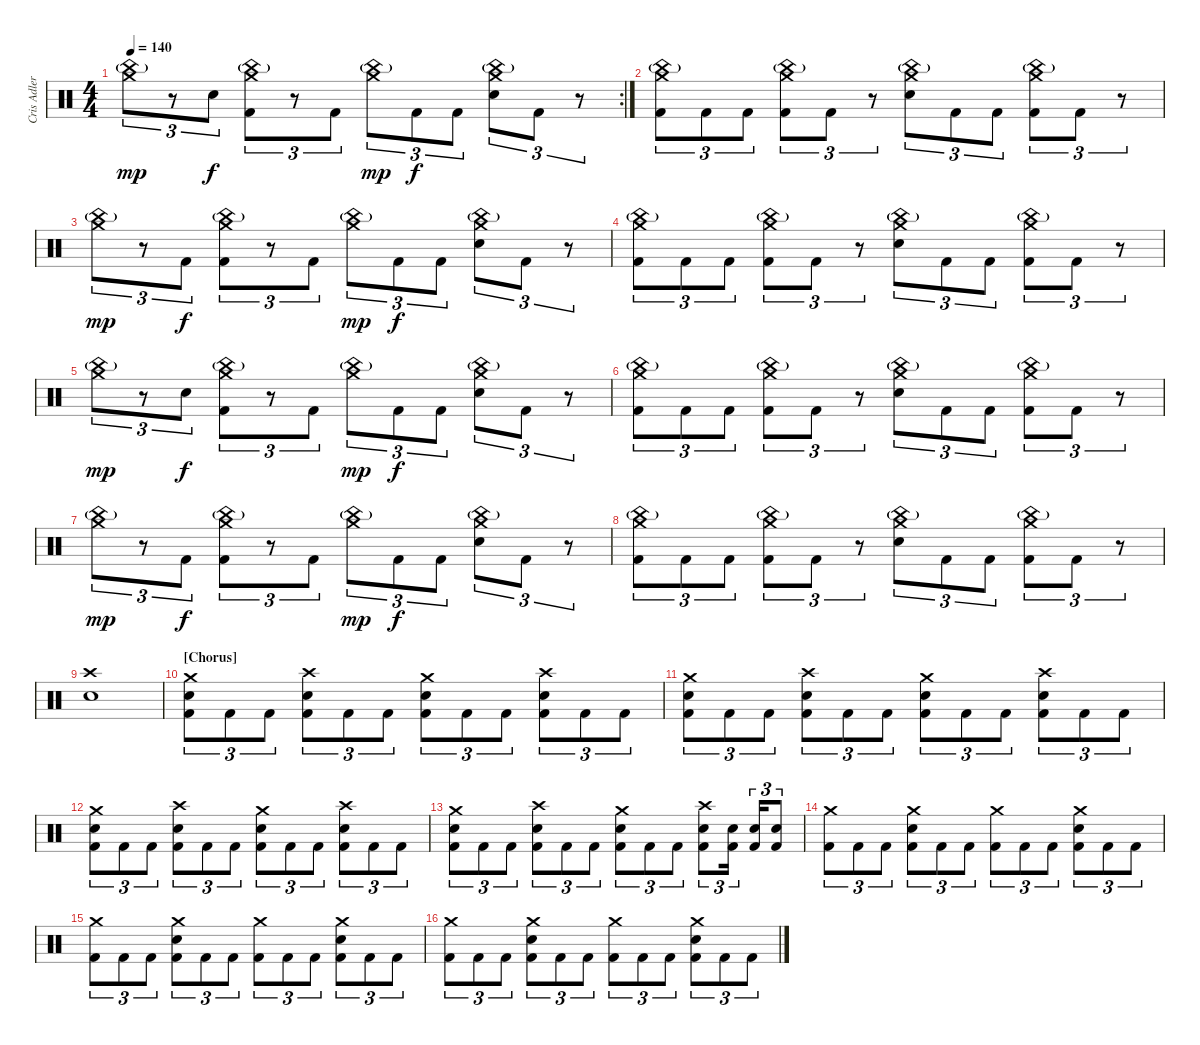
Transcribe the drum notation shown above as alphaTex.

\track ("Cris Adler" "Cris Adler") {instrument percussion}
\staff {score}
\articulation defaults
\rc 2
\ts (4 4)
\tempo 140
\clef neutral
\ks c
("Crash medium (hit)" "China (hit)"{g}).8{tu (3 2) dy mp} r.8{tu (3 2)} "Electric Snare (hit)".8{tu (3 2) dy f} ("Crash medium (hit)" "China (hit)"{g} "Kick (hit) 2").8{tu (3 2)} r.8{tu (3 2)} "Kick (hit) 2".8{tu (3 2)} ("Crash medium (hit)" "China (hit)"{g}).8{tu (3 2) dy mp} "Kick (hit) 2".8{tu (3 2) dy f} "Kick (hit) 2".8{tu (3 2)} ("Crash medium (hit)" "China (hit)"{g} "Electric Snare (hit)").8{tu (3 2)} "Kick (hit) 2".8{tu (3 2)} r.8{tu (3 2)} |
("China (hit)"{g} "Crash medium (hit)" "Kick (hit) 2").8{tu (3 2)} "Kick (hit) 2".8{tu (3 2)} "Kick (hit) 2".8{tu (3 2)} ("China (hit)"{g} "Crash medium (hit)" "Kick (hit) 2").8{tu (3 2)} "Kick (hit) 2".8{tu (3 2)} r.8{tu (3 2)} ("China (hit)"{g} "Crash medium (hit)" "Electric Snare (hit)").8{tu (3 2)} "Kick (hit) 2".8{tu (3 2)} "Kick (hit) 2".8{tu (3 2)} ("China (hit)"{g} "Crash medium (hit)" "Kick (hit) 2").8{tu (3 2)} "Kick (hit) 2".8{tu (3 2)} r.8{tu (3 2)} |
("Crash medium (hit)" "China (hit)"{g}).8{tu (3 2) dy mp} r.8{tu (3 2)} "Kick (hit) 2".8{tu (3 2) dy f} ("Crash medium (hit)" "China (hit)"{g} "Kick (hit) 2").8{tu (3 2)} r.8{tu (3 2)} "Kick (hit) 2".8{tu (3 2)} ("Crash medium (hit)" "China (hit)"{g}).8{tu (3 2) dy mp} "Kick (hit) 2".8{tu (3 2) dy f} "Kick (hit) 2".8{tu (3 2)} ("Crash medium (hit)" "China (hit)"{g} "Electric Snare (hit)").8{tu (3 2)} "Kick (hit) 2".8{tu (3 2)} r.8{tu (3 2)} |
("China (hit)"{g} "Crash medium (hit)" "Kick (hit) 2").8{tu (3 2)} "Kick (hit) 2".8{tu (3 2)} "Kick (hit) 2".8{tu (3 2)} ("China (hit)"{g} "Crash medium (hit)" "Kick (hit) 2").8{tu (3 2)} "Kick (hit) 2".8{tu (3 2)} r.8{tu (3 2)} ("China (hit)"{g} "Crash medium (hit)" "Electric Snare (hit)").8{tu (3 2)} "Kick (hit) 2".8{tu (3 2)} "Kick (hit) 2".8{tu (3 2)} ("China (hit)"{g} "Crash medium (hit)" "Kick (hit) 2").8{tu (3 2)} "Kick (hit) 2".8{tu (3 2)} r.8{tu (3 2)} |
("Crash medium (hit)" "China (hit)"{g}).8{tu (3 2) dy mp} r.8{tu (3 2)} "Electric Snare (hit)".8{tu (3 2) dy f} ("Crash medium (hit)" "China (hit)"{g} "Kick (hit) 2").8{tu (3 2)} r.8{tu (3 2)} "Kick (hit) 2".8{tu (3 2)} ("Crash medium (hit)" "China (hit)"{g}).8{tu (3 2) dy mp} "Kick (hit) 2".8{tu (3 2) dy f} "Kick (hit) 2".8{tu (3 2)} ("Crash medium (hit)" "China (hit)"{g} "Electric Snare (hit)").8{tu (3 2)} "Kick (hit) 2".8{tu (3 2)} r.8{tu (3 2)} |
("China (hit)"{g} "Crash medium (hit)" "Kick (hit) 2").8{tu (3 2)} "Kick (hit) 2".8{tu (3 2)} "Kick (hit) 2".8{tu (3 2)} ("China (hit)"{g} "Crash medium (hit)" "Kick (hit) 2").8{tu (3 2)} "Kick (hit) 2".8{tu (3 2)} r.8{tu (3 2)} ("China (hit)"{g} "Crash medium (hit)" "Electric Snare (hit)").8{tu (3 2)} "Kick (hit) 2".8{tu (3 2)} "Kick (hit) 2".8{tu (3 2)} ("China (hit)"{g} "Crash medium (hit)" "Kick (hit) 2").8{tu (3 2)} "Kick (hit) 2".8{tu (3 2)} r.8{tu (3 2)} |
("Crash medium (hit)" "China (hit)"{g}).8{tu (3 2) dy mp} r.8{tu (3 2)} "Kick (hit) 2".8{tu (3 2) dy f} ("Crash medium (hit)" "China (hit)"{g} "Kick (hit) 2").8{tu (3 2)} r.8{tu (3 2)} "Kick (hit) 2".8{tu (3 2)} ("Crash medium (hit)" "China (hit)"{g}).8{tu (3 2) dy mp} "Kick (hit) 2".8{tu (3 2) dy f} "Kick (hit) 2".8{tu (3 2)} ("Crash medium (hit)" "China (hit)"{g} "Electric Snare (hit)").8{tu (3 2)} "Kick (hit) 2".8{tu (3 2)} r.8{tu (3 2)} |
("China (hit)"{g} "Crash medium (hit)" "Kick (hit) 2").8{tu (3 2)} "Kick (hit) 2".8{tu (3 2)} "Kick (hit) 2".8{tu (3 2)} ("China (hit)"{g} "Crash medium (hit)" "Kick (hit) 2").8{tu (3 2)} "Kick (hit) 2".8{tu (3 2)} r.8{tu (3 2)} ("China (hit)"{g} "Crash medium (hit)" "Electric Snare (hit)").8{tu (3 2)} "Kick (hit) 2".8{tu (3 2)} "Kick (hit) 2".8{tu (3 2)} ("China (hit)"{g} "Crash medium (hit)" "Kick (hit) 2").8{tu (3 2)} "Kick (hit) 2".8{tu (3 2)} r.8{tu (3 2)} |
("Crash high (hit)" "Electric Snare (hit)").1 |
\section ("" "[Chorus]")
("Crash medium (hit)" "Electric Snare (hit)" "Kick (hit) 2").8{tu (3 2)} "Kick (hit) 2".8{tu (3 2)} "Kick (hit) 2".8{tu (3 2)} ("Crash high (hit)" "Electric Snare (hit)" "Kick (hit) 2").8{tu (3 2)} "Kick (hit) 2".8{tu (3 2)} "Kick (hit) 2".8{tu (3 2)} ("Crash medium (hit)" "Electric Snare (hit)" "Kick (hit) 2").8{tu (3 2)} "Kick (hit) 2".8{tu (3 2)} "Kick (hit) 2".8{tu (3 2)} ("Crash high (hit)" "Electric Snare (hit)" "Kick (hit) 2").8{tu (3 2)} "Kick (hit) 2".8{tu (3 2)} "Kick (hit) 2".8{tu (3 2)} |
("Crash medium (hit)" "Electric Snare (hit)" "Kick (hit) 2").8{tu (3 2)} "Kick (hit) 2".8{tu (3 2)} "Kick (hit) 2".8{tu (3 2)} ("Crash high (hit)" "Electric Snare (hit)" "Kick (hit) 2").8{tu (3 2)} "Kick (hit) 2".8{tu (3 2)} "Kick (hit) 2".8{tu (3 2)} ("Crash medium (hit)" "Electric Snare (hit)" "Kick (hit) 2").8{tu (3 2)} "Kick (hit) 2".8{tu (3 2)} "Kick (hit) 2".8{tu (3 2)} ("Crash high (hit)" "Electric Snare (hit)" "Kick (hit) 2").8{tu (3 2)} "Kick (hit) 2".8{tu (3 2)} "Kick (hit) 2".8{tu (3 2)} |
("Crash medium (hit)" "Electric Snare (hit)" "Kick (hit) 2").8{tu (3 2)} "Kick (hit) 2".8{tu (3 2)} "Kick (hit) 2".8{tu (3 2)} ("Crash high (hit)" "Electric Snare (hit)" "Kick (hit) 2").8{tu (3 2)} "Kick (hit) 2".8{tu (3 2)} "Kick (hit) 2".8{tu (3 2)} ("Crash medium (hit)" "Electric Snare (hit)" "Kick (hit) 2").8{tu (3 2)} "Kick (hit) 2".8{tu (3 2)} "Kick (hit) 2".8{tu (3 2)} ("Crash high (hit)" "Electric Snare (hit)" "Kick (hit) 2").8{tu (3 2)} "Kick (hit) 2".8{tu (3 2)} "Kick (hit) 2".8{tu (3 2)} |
("Crash medium (hit)" "Electric Snare (hit)" "Kick (hit) 2").8{tu (3 2)} "Kick (hit) 2".8{tu (3 2)} "Kick (hit) 2".8{tu (3 2)} ("Crash high (hit)" "Electric Snare (hit)" "Kick (hit) 2").8{tu (3 2)} "Kick (hit) 2".8{tu (3 2)} "Kick (hit) 2".8{tu (3 2)} ("Crash medium (hit)" "Electric Snare (hit)" "Kick (hit) 2").8{tu (3 2)} "Kick (hit) 2".8{tu (3 2)} "Kick (hit) 2".8{tu (3 2)} ("Crash high (hit)" "Electric Snare (hit)" "Kick (hit) 2").8{tu (3 2)} ("Electric Snare (hit)" "Kick (hit) 2").16{tu (3 2)} ("Electric Snare (hit)" "Kick (hit) 2").16{tu (3 2)} ("Electric Snare (hit)" "Kick (hit) 2").8{tu (3 2)} |
("Crash medium (hit)" "Kick (hit) 2").8{tu (3 2)} "Kick (hit) 2".8{tu (3 2)} "Kick (hit) 2".8{tu (3 2)} ("Crash medium (hit)" "Electric Snare (hit)" "Kick (hit) 2").8{tu (3 2)} "Kick (hit) 2".8{tu (3 2)} "Kick (hit) 2".8{tu (3 2)} ("Crash medium (hit)" "Kick (hit) 2").8{tu (3 2)} "Kick (hit) 2".8{tu (3 2)} "Kick (hit) 2".8{tu (3 2)} ("Crash medium (hit)" "Electric Snare (hit)" "Kick (hit) 2").8{tu (3 2)} "Kick (hit) 2".8{tu (3 2)} "Kick (hit) 2".8{tu (3 2)} |
("Crash medium (hit)" "Kick (hit) 2").8{tu (3 2)} "Kick (hit) 2".8{tu (3 2)} "Kick (hit) 2".8{tu (3 2)} ("Crash medium (hit)" "Electric Snare (hit)" "Kick (hit) 2").8{tu (3 2)} "Kick (hit) 2".8{tu (3 2)} "Kick (hit) 2".8{tu (3 2)} ("Crash medium (hit)" "Kick (hit) 2").8{tu (3 2)} "Kick (hit) 2".8{tu (3 2)} "Kick (hit) 2".8{tu (3 2)} ("Crash medium (hit)" "Electric Snare (hit)" "Kick (hit) 2").8{tu (3 2)} "Kick (hit) 2".8{tu (3 2)} "Kick (hit) 2".8{tu (3 2)} |
("Crash medium (hit)" "Kick (hit) 2").8{tu (3 2)} "Kick (hit) 2".8{tu (3 2)} "Kick (hit) 2".8{tu (3 2)} ("Crash medium (hit)" "Electric Snare (hit)" "Kick (hit) 2").8{tu (3 2)} "Kick (hit) 2".8{tu (3 2)} "Kick (hit) 2".8{tu (3 2)} ("Crash medium (hit)" "Kick (hit) 2").8{tu (3 2)} "Kick (hit) 2".8{tu (3 2)} "Kick (hit) 2".8{tu (3 2)} ("Crash medium (hit)" "Electric Snare (hit)" "Kick (hit) 2").8{tu (3 2)} "Kick (hit) 2".8{tu (3 2)} "Kick (hit) 2".8{tu (3 2)}
